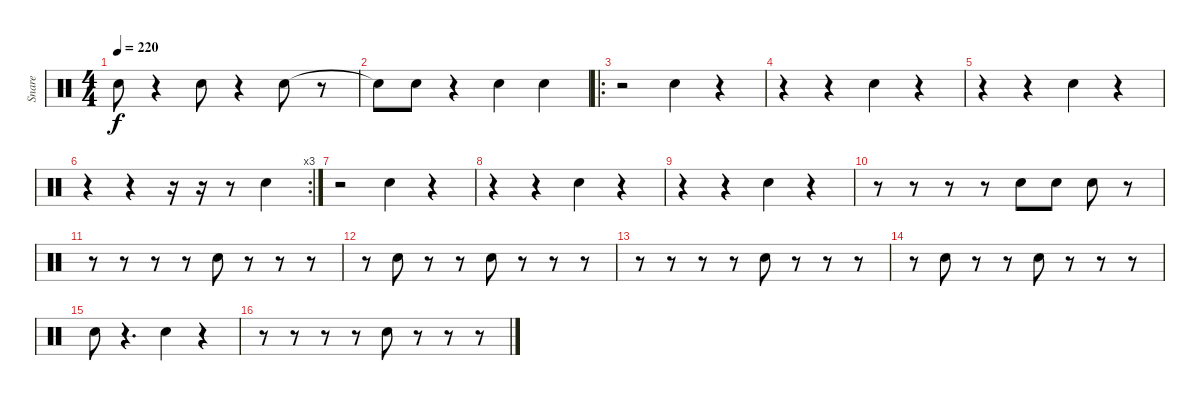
\track ("Snare" "Snare") {instrument percussion}
\staff {score}
\articulation defaults
\ts (4 4)
\tempo 220
\clef neutral
\ks c "Electric Snare (hit)".8{dy f}
r.4 "Electric Snare (hit)".8 r.4 "Electric Snare (hit)".8 r.8 |
"Snare (hit)"{t}.8 "Electric Snare (hit)".8 r.4 "Electric Snare (hit)".4 "Electric Snare (hit)".4 |
\ro
r.2 "Electric Snare (hit)".4 r.4 |
r.4 r.4 "Electric Snare (hit)".4 r.4 |
r.4 r.4 "Electric Snare (hit)".4 r.4 |
\rc 3
r.4 r.4 r.16 r.16 r.8 "Electric Snare (hit)".4 |
r.2 "Electric Snare (hit)".4 r.4 |
r.4 r.4 "Electric Snare (hit)".4 r.4 |
r.4 r.4 "Electric Snare (hit)".4 r.4 |
r.8 r.8 r.8 r.8 "Electric Snare (hit)".8 "Electric Snare (hit)".8 "Electric Snare (hit)".8 r.8 |
r.8 r.8 r.8 r.8 "Electric Snare (hit)".8 r.8 r.8 r.8 |
r.8 "Electric Snare (hit)".8 r.8 r.8 "Electric Snare (hit)".8 r.8 r.8 r.8 |
r.8 r.8 r.8 r.8 "Electric Snare (hit)".8 r.8 r.8 r.8 |
r.8 "Electric Snare (hit)".8 r.8 r.8 "Electric Snare (hit)".8 r.8 r.8 r.8 |
"Electric Snare (hit)".8 r.4{d} "Electric Snare (hit)".4 r.4 |
r.8 r.8 r.8 r.8 "Electric Snare (hit)".8 r.8 r.8 r.8
